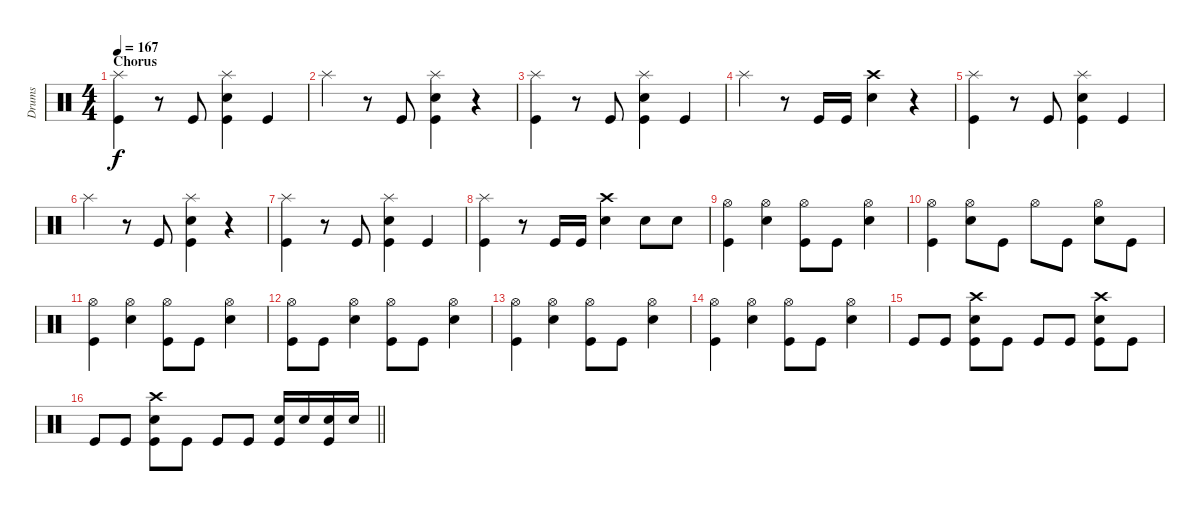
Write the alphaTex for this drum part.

\track ("Drums" "Drums") {instrument percussion}
\staff {score}
\articulation defaults
\ts (4 4)
\section ("" "Chorus")
\tempo 167
\clef neutral
\ks c
("Splash (hit)" "Kick (hit)").4{dy f} r.8 "Kick (hit)".8 ("Splash (hit)" "Snare (hit) 2" "Kick (hit)").4 "Kick (hit)".4 |
"Splash (hit)".4 r.8 "Kick (hit)".8 ("Splash (hit)" "Snare (hit) 2" "Kick (hit)").4 r.4 |
("Splash (hit)" "Kick (hit)").4 r.8 "Kick (hit)".8 ("Splash (hit)" "Snare (hit) 2" "Kick (hit)").4 "Kick (hit)".4 |
"Splash (hit)".4 r.8 "Kick (hit)".16 "Kick (hit)".16 ("Crash high (hit)" "Snare (hit) 2").4 r.4 |
("Splash (hit)" "Kick (hit)").4 r.8 "Kick (hit)".8 ("Splash (hit)" "Snare (hit) 2" "Kick (hit)").4 "Kick (hit)".4 |
"Splash (hit)".4 r.8 "Kick (hit)".8 ("Splash (hit)" "Snare (hit) 2" "Kick (hit)").4 r.4 |
("Splash (hit)" "Kick (hit)").4 r.8 "Kick (hit)".8 ("Splash (hit)" "Snare (hit) 2" "Kick (hit)").4 "Kick (hit)".4 |
("Splash (hit)" "Kick (hit)").4 r.8 "Kick (hit)".16 "Kick (hit)".16 ("Crash high (hit)" "Snare (hit) 2").4 "Snare (hit) 2".8 "Snare (hit) 2".8 |
("Hi-Hat (open)" "Kick (hit)").4 ("Hi-Hat (open)" "Snare (hit) 2").4 ("Hi-Hat (open)" "Kick (hit)").8 "Kick (hit)".8 ("Hi-Hat (open)" "Snare (hit) 2").4 |
("Hi-Hat (open)" "Kick (hit)").4 ("Hi-Hat (open)" "Snare (hit) 2").8 "Kick (hit)".8 "Hi-Hat (open)".8 "Kick (hit)".8 ("Hi-Hat (open)" "Snare (hit) 2").8 "Kick (hit)".8 |
("Hi-Hat (open)" "Kick (hit)").4 ("Hi-Hat (open)" "Snare (hit) 2").4 ("Hi-Hat (open)" "Kick (hit)").8 "Kick (hit)".8 ("Hi-Hat (open)" "Snare (hit) 2").4 |
("Hi-Hat (open)" "Kick (hit)").8 "Kick (hit)".8 ("Hi-Hat (open)" "Snare (hit) 2").4 ("Hi-Hat (open)" "Kick (hit)").8 "Kick (hit)".8 ("Hi-Hat (open)" "Snare (hit) 2").4 |
("Hi-Hat (open)" "Kick (hit)").4 ("Hi-Hat (open)" "Snare (hit) 2").4 ("Hi-Hat (open)" "Kick (hit)").8 "Kick (hit)".8 ("Hi-Hat (open)" "Snare (hit) 2").4 |
("Hi-Hat (open)" "Kick (hit)").4 ("Hi-Hat (open)" "Snare (hit) 2").4 ("Hi-Hat (open)" "Kick (hit)").8 "Kick (hit)".8 ("Hi-Hat (open)" "Snare (hit) 2").4 |
"Kick (hit)".8 "Kick (hit)".8 ("Crash high (hit)" "Snare (hit) 2" "Kick (hit)").8 "Kick (hit)".8 "Kick (hit)".8 "Kick (hit)".8 ("Crash high (hit)" "Snare (hit) 2" "Kick (hit)").8 "Kick (hit)".8 |
\barLineRight lightlight "Kick (hit)".8 "Kick (hit)".8
("Crash high (hit)" "Snare (hit) 2" "Kick (hit)").8 "Kick (hit)".8 "Kick (hit)".8 "Kick (hit)".8 ("Snare (hit) 2" "Kick (hit)").16 "Snare (hit) 2".16 ("Snare (hit) 2" "Kick (hit)").16 "Snare (hit) 2".16
